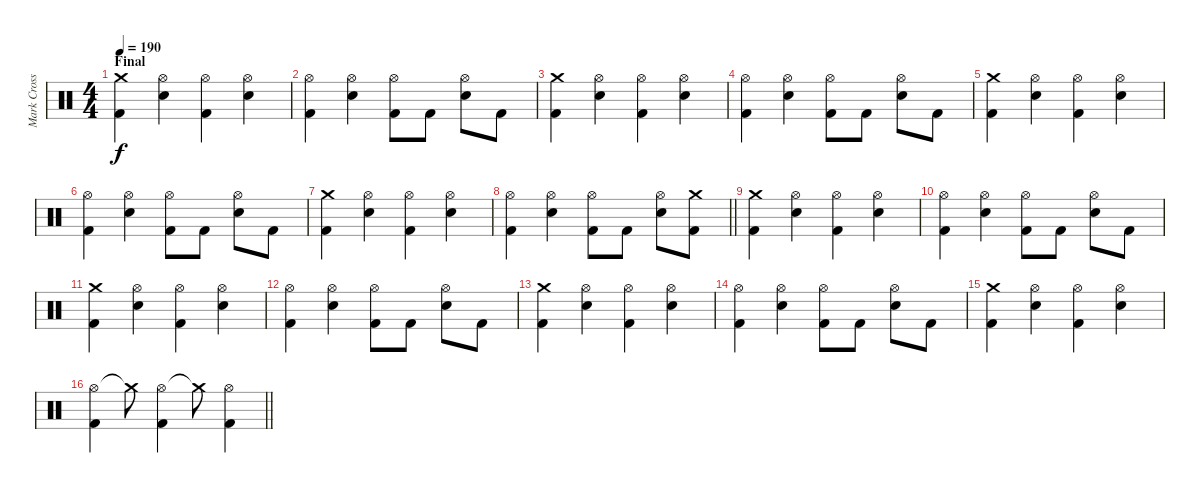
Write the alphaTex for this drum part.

\track ("Mark Cross" "Mark Cross") {instrument percussion}
\staff {score}
\articulation defaults
\ts (4 4)
\section ("" "Final")
\tempo 190
\clef neutral
\ks c
("Crash medium (hit)" "Kick (hit) 2").4{dy f} ("Hi-Hat (open)" "Electric Snare (hit)").4 ("Hi-Hat (open)" "Kick (hit) 2").4 ("Hi-Hat (open)" "Electric Snare (hit)").4 |
("Hi-Hat (open)" "Kick (hit) 2").4 ("Hi-Hat (open)" "Electric Snare (hit)").4 ("Hi-Hat (open)" "Kick (hit) 2").8 "Kick (hit) 2".8 ("Hi-Hat (open)" "Electric Snare (hit)").8 "Kick (hit) 2".8 |
("Crash medium (hit)" "Kick (hit) 2").4 ("Hi-Hat (open)" "Electric Snare (hit)").4 ("Hi-Hat (open)" "Kick (hit) 2").4 ("Hi-Hat (open)" "Electric Snare (hit)").4 |
("Hi-Hat (open)" "Kick (hit) 2").4 ("Hi-Hat (open)" "Electric Snare (hit)").4 ("Hi-Hat (open)" "Kick (hit) 2").8 "Kick (hit) 2".8 ("Hi-Hat (open)" "Electric Snare (hit)").8 "Kick (hit) 2".8 |
("Crash medium (hit)" "Kick (hit) 2").4 ("Hi-Hat (open)" "Electric Snare (hit)").4 ("Hi-Hat (open)" "Kick (hit) 2").4 ("Hi-Hat (open)" "Electric Snare (hit)").4 |
("Hi-Hat (open)" "Kick (hit) 2").4 ("Hi-Hat (open)" "Electric Snare (hit)").4 ("Hi-Hat (open)" "Kick (hit) 2").8 "Kick (hit) 2".8 ("Hi-Hat (open)" "Electric Snare (hit)").8 "Kick (hit) 2".8 |
("Crash medium (hit)" "Kick (hit) 2").4 ("Hi-Hat (open)" "Electric Snare (hit)").4 ("Hi-Hat (open)" "Kick (hit) 2").4 ("Hi-Hat (open)" "Electric Snare (hit)").4 |
\barLineRight lightlight
("Hi-Hat (open)" "Kick (hit) 2").4 ("Hi-Hat (open)" "Electric Snare (hit)").4 ("Hi-Hat (open)" "Kick (hit) 2").8 "Kick (hit) 2".8 ("Hi-Hat (open)" "Electric Snare (hit)").8 ("Crash medium (hit)" "Kick (hit) 2").8 |
("Crash medium (hit)" "Kick (hit) 2").4 ("Hi-Hat (open)" "Electric Snare (hit)").4 ("Hi-Hat (open)" "Kick (hit) 2").4 ("Hi-Hat (open)" "Electric Snare (hit)").4 |
("Hi-Hat (open)" "Kick (hit) 2").4 ("Hi-Hat (open)" "Electric Snare (hit)").4 ("Hi-Hat (open)" "Kick (hit) 2").8 "Kick (hit) 2".8 ("Hi-Hat (open)" "Electric Snare (hit)").8 "Kick (hit) 2".8 |
("Crash medium (hit)" "Kick (hit) 2").4 ("Hi-Hat (open)" "Electric Snare (hit)").4 ("Hi-Hat (open)" "Kick (hit) 2").4 ("Hi-Hat (open)" "Electric Snare (hit)").4 |
("Hi-Hat (open)" "Kick (hit) 2").4 ("Hi-Hat (open)" "Electric Snare (hit)").4 ("Hi-Hat (open)" "Kick (hit) 2").8 "Kick (hit) 2".8 ("Hi-Hat (open)" "Electric Snare (hit)").8 "Kick (hit) 2".8 |
("Crash medium (hit)" "Kick (hit) 2").4 ("Hi-Hat (open)" "Electric Snare (hit)").4 ("Hi-Hat (open)" "Kick (hit) 2").4 ("Hi-Hat (open)" "Electric Snare (hit)").4 |
("Hi-Hat (open)" "Kick (hit) 2").4 ("Hi-Hat (open)" "Electric Snare (hit)").4 ("Hi-Hat (open)" "Kick (hit) 2").8 "Kick (hit) 2".8 ("Hi-Hat (open)" "Electric Snare (hit)").8 "Kick (hit) 2".8 |
("Crash medium (hit)" "Kick (hit) 2").4 ("Hi-Hat (open)" "Electric Snare (hit)").4 ("Hi-Hat (open)" "Kick (hit) 2").4 ("Hi-Hat (open)" "Electric Snare (hit)").4 |
\barLineRight lightlight
("Hi-Hat (open)" "Kick (hit) 2").4 "Crash medium (hit)"{t}.8 ("Hi-Hat (open)" "Kick (hit) 2").4 "Crash medium (hit)"{t}.8 ("Hi-Hat (open)" "Kick (hit) 2").4
